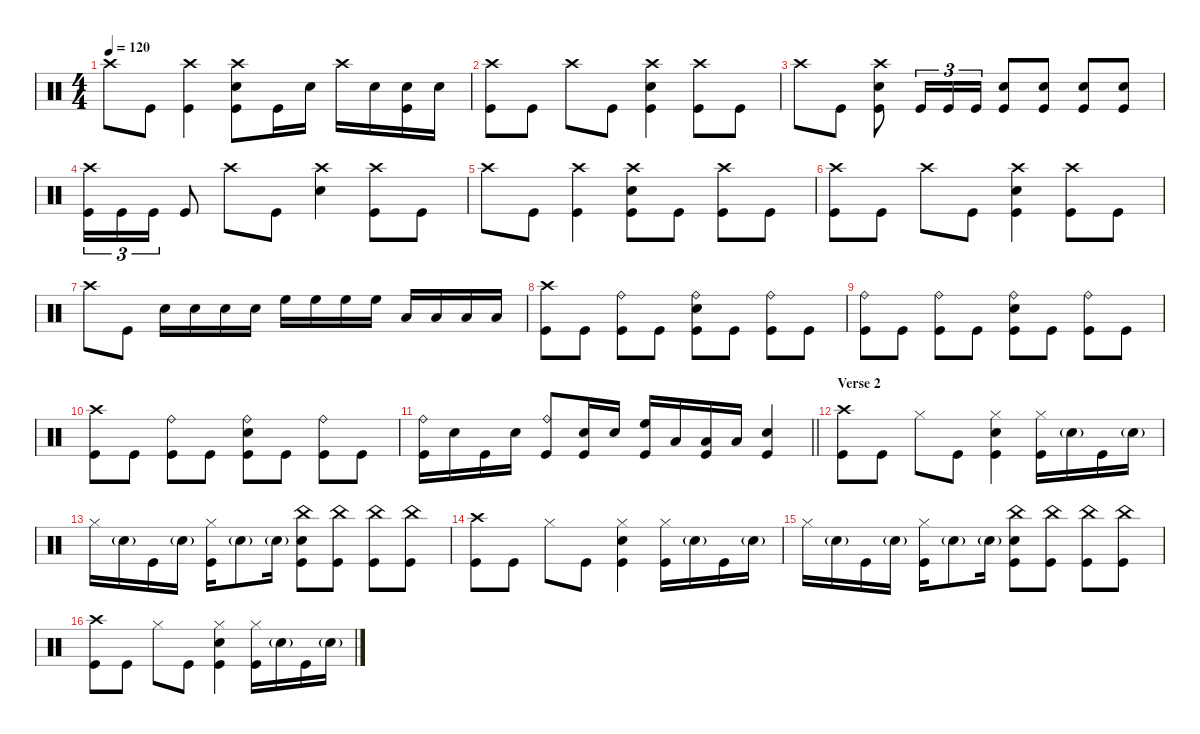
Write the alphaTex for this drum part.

\defaultSystemsLayout 4
\hideDynamics
\bracketExtendMode nobrackets
\singleTrackTrackNamePolicy hidden
\multiTrackTrackNamePolicy hidden
\firstSystemTrackNameMode fullname
\firstSystemTrackNameOrientation horizontal
\otherSystemsTrackNameOrientation horizontal
\track ("Drums" "drm.") {instrument percussion}
\staff {score}
\articulation defaults
\ts (4 4)
\tempo 120
\clef neutral
\ks c "Crash high (hit)".8{dy mf beam Down} "Kick (hit)".8{beam Down}
("Crash high (hit)" "Kick (hit)").4{beam Down} ("Snare (hit) 2" "Crash high (hit)" "Kick (hit)").8{beam Down} "Kick (hit)".16{beam Down} "Snare (hit) 2".16{beam Down} "Crash high (hit)".16{beam Down} "Snare (hit) 2".16{beam Down} ("Kick (hit)" "Snare (hit) 2").16{beam Down} "Snare (hit) 2".16{beam Down} |
("Crash high (hit)" "Kick (hit)").8{beam Down} "Kick (hit)".8{beam Down} "Crash high (hit)".8{beam Down} "Kick (hit)".8{beam Down} ("Snare (hit) 2" "Crash high (hit)" "Kick (hit)").4{beam Down} ("Crash high (hit)" "Kick (hit)").8{beam Down} "Kick (hit)".8{beam Down} |
"Crash high (hit)".8{beam Down} "Kick (hit)".8{beam Down} ("Snare (hit) 2" "Crash high (hit)" "Kick (hit)").8{beam Down} "Kick (hit)".16{tu (3 2) beam Up} "Kick (hit)".16{tu (3 2) beam Up} "Kick (hit)".16{tu (3 2) beam Up} ("Kick (hit)" "Snare (hit) 2").8{beam Up} ("Kick (hit)" "Snare (hit) 2").8{beam Up} ("Kick (hit)" "Snare (hit) 2").8{beam Up} ("Kick (hit)" "Snare (hit) 2").8{beam Up} |
("Kick (hit)" "Crash high (hit)").16{tu (3 2) beam Down} "Kick (hit)".16{tu (3 2) beam Down} "Kick (hit)".16{tu (3 2) beam Down} "Kick (hit)".8{beam Up} "Crash high (hit)".8{beam Down} "Kick (hit)".8{beam Down} ("Snare (hit) 2" "Crash high (hit)").4{beam Down} ("Kick (hit)" "Crash high (hit)").8{beam Down} "Kick (hit)".8{beam Down} |
"Crash high (hit)".8{beam Down} "Kick (hit)".8{beam Down} ("Kick (hit)" "Crash high (hit)").4{beam Down} ("Kick (hit)" "Snare (hit) 2" "Crash high (hit)").8{beam Down} "Kick (hit)".8{beam Down} ("Crash high (hit)" "Kick (hit)").8{beam Down} "Kick (hit)".8{beam Down} |
("Crash high (hit)" "Kick (hit)").8{beam Down} "Kick (hit)".8{beam Down} "Crash high (hit)".8{beam Down} "Kick (hit)".8{beam Down} ("Snare (hit) 2" "Crash high (hit)" "Kick (hit)").4{beam Down} ("Crash high (hit)" "Kick (hit)").8{beam Down} "Kick (hit)".8{beam Down} |
"Crash high (hit)".8{beam Down} "Kick (hit)".8{beam Down} "Snare (hit) 2".16{beam Down} "Snare (hit) 2".16{beam Down} "Snare (hit) 2".16{beam Down} "Snare (hit) 2".16{beam Down} "High Floor Tom (hit)".16{beam Down} "High Floor Tom (hit)".16{beam Down} "High Floor Tom (hit)".16{beam Down} "High Floor Tom (hit)".16{beam Down} "Low Tom (hit)".16{beam Up} "Low Tom (hit)".16{beam Up} "Low Tom (hit)".16{beam Up} "Low Tom (hit)".16{beam Up} |
("Kick (hit)" "Crash high (hit)").8{beam Down} "Kick (hit)".8{beam Down} ("Kick (hit)" "Ride (bell)").8{beam Down} "Kick (hit)".8{beam Down} ("Kick (hit)" "Snare (hit) 2" "Ride (bell)").8{beam Down} "Kick (hit)".8{beam Down} ("Kick (hit)" "Ride (bell)").8{beam Down} "Kick (hit)".8{beam Down} |
("Ride (bell)" "Kick (hit)").8{beam Down} "Kick (hit)".8{beam Down} ("Ride (bell)" "Kick (hit)").8{beam Down} "Kick (hit)".8{beam Down} ("Snare (hit) 2" "Ride (bell)" "Kick (hit)").8{beam Down} "Kick (hit)".8{beam Down} ("Ride (bell)" "Kick (hit)").8{beam Down} "Kick (hit)".8{beam Down} |
("Crash high (hit)" "Kick (hit)").8{beam Down} "Kick (hit)".8{beam Down} ("Ride (bell)" "Kick (hit)").8{beam Down} "Kick (hit)".8{beam Down} ("Snare (hit) 2" "Ride (bell)" "Kick (hit)").8{beam Down} "Kick (hit)".8{beam Down} ("Ride (bell)" "Kick (hit)").8{beam Down} "Kick (hit)".8{beam Down} |
\barLineRight lightlight
("Kick (hit)" "Ride (bell)").16{beam Down} "Snare (hit) 2".16{beam Down} "Kick (hit)".16{beam Down} "Snare (hit) 2".16{beam Down} ("Ride (bell)" "Kick (hit)").8{beam Up} ("Snare (hit) 2" "Kick (hit)").16{beam Up} "Snare (hit) 2".16{beam Up} ("High Floor Tom (hit)" "Kick (hit)").16{beam Up} "Low Tom (hit)".16{beam Up} ("Low Floor Tom (hit)" "Kick (hit)").16{beam Up} "Low Floor Tom (hit)".16{beam Up} ("Snare (hit) 2" "Kick (hit)").4{beam Up} |
\section ("" "Verse 2")
("Crash high (hit)" "Kick (hit)").8{beam Down} "Kick (hit)".8{beam Down} "Hi-Hat (closed)".8{beam Down} "Kick (hit)".8{beam Down} ("Snare (hit) 2" "Hi-Hat (closed)" "Kick (hit)").4{beam Down} ("Hi-Hat (closed)" "Kick (hit)").16{beam Down} "Snare (hit) 2"{g}.16{dy mp beam Down} "Kick (hit)".16{dy mf beam Down} "Snare (hit) 2"{g}.16{dy mp beam Down} |
"Hi-Hat (closed)".16{dy mf beam Down} "Snare (hit) 2"{g}.16{dy mp beam Down} "Kick (hit)".16{dy mf beam Down} "Snare (hit) 2"{g}.16{dy mp beam Down} ("Hi-Hat (closed)" "Kick (hit)").16{dy mf beam Down} "Snare (hit) 2"{g}.8{dy mp beam Down} "Snare (hit) 2"{g}.16{beam Down} ("Kick (hit)" "Snare (hit) 2" "China (hit)").8{dy mf beam Down} ("Kick (hit)" "China (hit)").8{beam Down} ("Kick (hit)" "China (hit)").8{beam Down} ("Kick (hit)" "China (hit)").8{beam Down} |
("Kick (hit)" "Crash high (hit)").8{beam Down} "Kick (hit)".8{beam Down} "Hi-Hat (closed)".8{beam Down} "Kick (hit)".8{beam Down} ("Kick (hit)" "Snare (hit) 2" "Hi-Hat (closed)").4{beam Down} ("Kick (hit)" "Hi-Hat (closed)").16{beam Down} "Snare (hit) 2"{g}.16{dy mp beam Down} "Kick (hit)".16{dy mf beam Down} "Snare (hit) 2"{g}.16{dy mp beam Down} |
"Hi-Hat (closed)".16{dy mf beam Down} "Snare (hit) 2"{g}.16{dy mp beam Down} "Kick (hit)".16{dy mf beam Down} "Snare (hit) 2"{g}.16{dy mp beam Down} ("Kick (hit)" "Hi-Hat (closed)").16{dy mf beam Down} "Snare (hit) 2"{g}.8{dy mp beam Down} "Snare (hit) 2"{g}.16{beam Down} ("Snare (hit) 2" "China (hit)" "Kick (hit)").8{dy f beam Down} ("China (hit)" "Kick (hit)").8{dy mf beam Down} ("China (hit)" "Kick (hit)").8{beam Down} ("China (hit)" "Kick (hit)").8{beam Down} |
("Kick (hit)" "Crash high (hit)").8{beam Down} "Kick (hit)".8{beam Down} "Hi-Hat (closed)".8{beam Down} "Kick (hit)".8{beam Down} ("Kick (hit)" "Snare (hit) 2" "Hi-Hat (closed)").4{beam Down} ("Kick (hit)" "Hi-Hat (closed)").16{beam Down} "Snare (hit) 2"{g}.16{dy mp beam Down} "Kick (hit)".16{dy mf beam Down} "Snare (hit) 2"{g}.16{dy mp beam Down}
